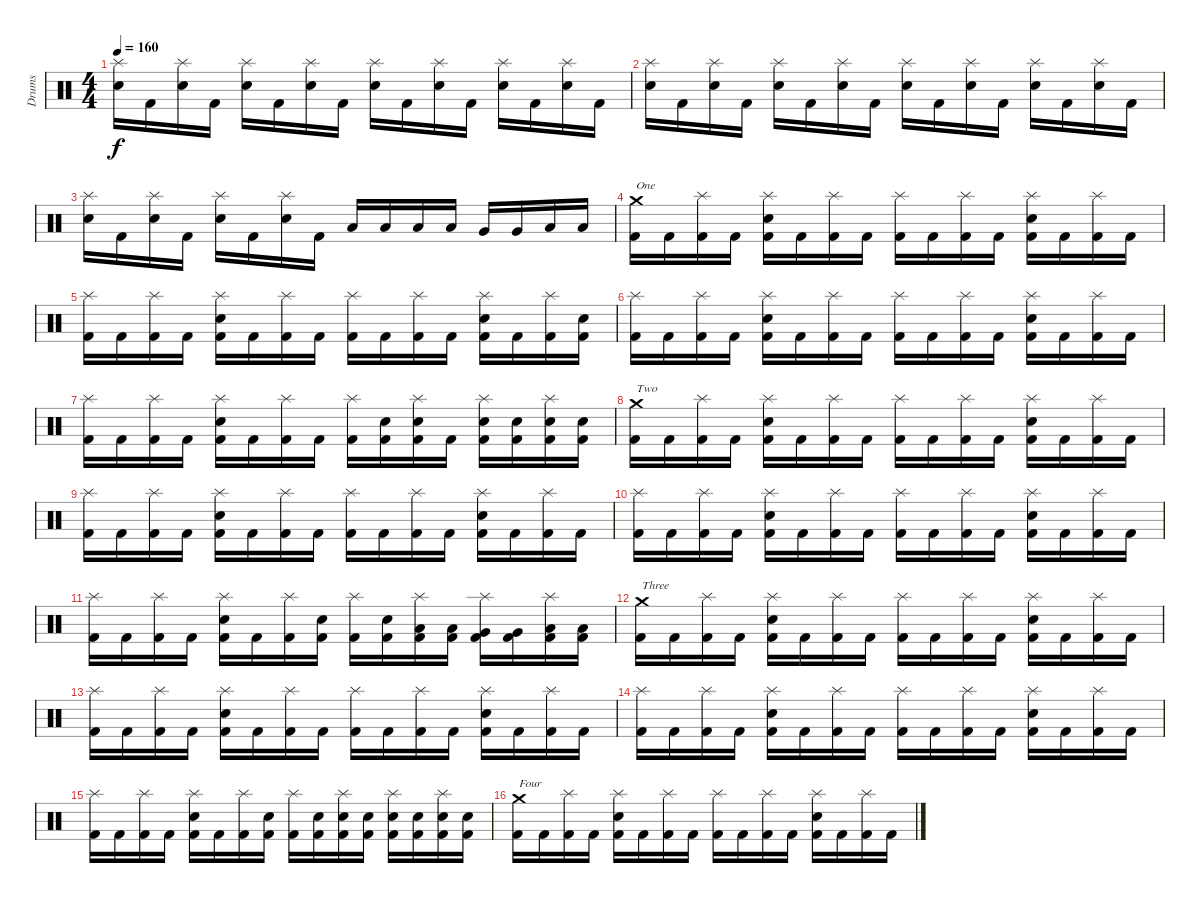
\track ("Drums" "Drums") {instrument percussion}
\staff {score}
\articulation defaults
\ts (4 4)
\tempo 160
\clef neutral
\ks c
("Splash (hit)" "Snare (hit) 2").16{dy f} "Kick (hit) 2".16 ("Splash (hit)" "Snare (hit) 2").16 "Kick (hit) 2".16 ("Splash (hit)" "Snare (hit) 2").16 "Kick (hit) 2".16 ("Splash (hit)" "Snare (hit) 2").16 "Kick (hit) 2".16 ("Splash (hit)" "Snare (hit) 2").16 "Kick (hit) 2".16 ("Splash (hit)" "Snare (hit) 2").16 "Kick (hit) 2".16 ("Splash (hit)" "Snare (hit) 2").16 "Kick (hit) 2".16 ("Splash (hit)" "Snare (hit) 2").16 "Kick (hit) 2".16 |
("Splash (hit)" "Snare (hit) 2").16 "Kick (hit) 2".16 ("Splash (hit)" "Snare (hit) 2").16 "Kick (hit) 2".16 ("Splash (hit)" "Snare (hit) 2").16 "Kick (hit) 2".16 ("Splash (hit)" "Snare (hit) 2").16 "Kick (hit) 2".16 ("Splash (hit)" "Snare (hit) 2").16 "Kick (hit) 2".16 ("Splash (hit)" "Snare (hit) 2").16 "Kick (hit) 2".16 ("Splash (hit)" "Snare (hit) 2").16 "Kick (hit) 2".16 ("Splash (hit)" "Snare (hit) 2").16 "Kick (hit) 2".16 |
("Splash (hit)" "Snare (hit) 2").16 "Kick (hit) 2".16 ("Splash (hit)" "Snare (hit) 2").16 "Kick (hit) 2".16 ("Splash (hit)" "Snare (hit) 2").16 "Kick (hit) 2".16 ("Splash (hit)" "Snare (hit) 2").16 "Kick (hit) 2".16 "Low Tom (hit)".16 "Low Tom (hit)".16 "Low Tom (hit)".16 "Low Tom (hit)".16 "Very Low Tom (hit)".16 "Very Low Tom (hit)".16 "Low Floor Tom (hit)".16 "Low Floor Tom (hit)".16 |
("Crash medium (hit)" "Kick (hit) 2").16{txt "One"} "Kick (hit) 2".16 ("Splash (hit)" "Kick (hit) 2").16 "Kick (hit) 2".16 ("Splash (hit)" "Snare (hit) 2" "Kick (hit) 2").16 "Kick (hit) 2".16 ("Splash (hit)" "Kick (hit) 2").16 "Kick (hit) 2".16 ("Splash (hit)" "Kick (hit) 2").16 "Kick (hit) 2".16 ("Splash (hit)" "Kick (hit) 2").16 "Kick (hit) 2".16 ("Splash (hit)" "Snare (hit) 2" "Kick (hit) 2").16 "Kick (hit) 2".16 ("Splash (hit)" "Kick (hit) 2").16 "Kick (hit) 2".16 |
("Splash (hit)" "Kick (hit) 2").16 "Kick (hit) 2".16 ("Splash (hit)" "Kick (hit) 2").16 "Kick (hit) 2".16 ("Splash (hit)" "Snare (hit) 2" "Kick (hit) 2").16 "Kick (hit) 2".16 ("Splash (hit)" "Kick (hit) 2").16 "Kick (hit) 2".16 ("Splash (hit)" "Kick (hit) 2").16 "Kick (hit) 2".16 ("Splash (hit)" "Kick (hit) 2").16 "Kick (hit) 2".16 ("Splash (hit)" "Snare (hit) 2" "Kick (hit) 2").16 "Kick (hit) 2".16 ("Splash (hit)" "Kick (hit) 2").16 ("Snare (hit) 2" "Kick (hit) 2").16 |
("Splash (hit)" "Kick (hit) 2").16 "Kick (hit) 2".16 ("Splash (hit)" "Kick (hit) 2").16 "Kick (hit) 2".16 ("Splash (hit)" "Snare (hit) 2" "Kick (hit) 2").16 "Kick (hit) 2".16 ("Splash (hit)" "Kick (hit) 2").16 "Kick (hit) 2".16 ("Splash (hit)" "Kick (hit) 2").16 "Kick (hit) 2".16 ("Splash (hit)" "Kick (hit) 2").16 "Kick (hit) 2".16 ("Splash (hit)" "Snare (hit) 2" "Kick (hit) 2").16 "Kick (hit) 2".16 ("Splash (hit)" "Kick (hit) 2").16 "Kick (hit) 2".16 |
("Splash (hit)" "Kick (hit) 2").16 "Kick (hit) 2".16 ("Splash (hit)" "Kick (hit) 2").16 "Kick (hit) 2".16 ("Splash (hit)" "Snare (hit) 2" "Kick (hit) 2").16 "Kick (hit) 2".16 ("Splash (hit)" "Kick (hit) 2").16 "Kick (hit) 2".16 ("Splash (hit)" "Kick (hit) 2").16 ("Snare (hit) 2" "Kick (hit) 2").16 ("Splash (hit)" "Snare (hit) 2" "Kick (hit) 2").16 "Kick (hit) 2".16 ("Splash (hit)" "Snare (hit) 2" "Kick (hit) 2").16 ("Snare (hit) 2" "Kick (hit) 2").16 ("Splash (hit)" "Snare (hit) 2" "Kick (hit) 2").16 ("Snare (hit) 2" "Kick (hit) 2").16 |
("Crash medium (hit)" "Kick (hit) 2").16{txt "Two"} "Kick (hit) 2".16 ("Splash (hit)" "Kick (hit) 2").16 "Kick (hit) 2".16 ("Splash (hit)" "Snare (hit) 2" "Kick (hit) 2").16 "Kick (hit) 2".16 ("Splash (hit)" "Kick (hit) 2").16 "Kick (hit) 2".16 ("Splash (hit)" "Kick (hit) 2").16 "Kick (hit) 2".16 ("Splash (hit)" "Kick (hit) 2").16 "Kick (hit) 2".16 ("Splash (hit)" "Snare (hit) 2" "Kick (hit) 2").16 "Kick (hit) 2".16 ("Splash (hit)" "Kick (hit) 2").16 "Kick (hit) 2".16 |
("Splash (hit)" "Kick (hit) 2").16 "Kick (hit) 2".16 ("Splash (hit)" "Kick (hit) 2").16 "Kick (hit) 2".16 ("Splash (hit)" "Snare (hit) 2" "Kick (hit) 2").16 "Kick (hit) 2".16 ("Splash (hit)" "Kick (hit) 2").16 "Kick (hit) 2".16 ("Splash (hit)" "Kick (hit) 2").16 "Kick (hit) 2".16 ("Splash (hit)" "Kick (hit) 2").16 "Kick (hit) 2".16 ("Splash (hit)" "Snare (hit) 2" "Kick (hit) 2").16 "Kick (hit) 2".16 ("Splash (hit)" "Kick (hit) 2").16 "Kick (hit) 2".16 |
("Splash (hit)" "Kick (hit) 2").16 "Kick (hit) 2".16 ("Splash (hit)" "Kick (hit) 2").16 "Kick (hit) 2".16 ("Splash (hit)" "Snare (hit) 2" "Kick (hit) 2").16 "Kick (hit) 2".16 ("Splash (hit)" "Kick (hit) 2").16 "Kick (hit) 2".16 ("Splash (hit)" "Kick (hit) 2").16 "Kick (hit) 2".16 ("Splash (hit)" "Kick (hit) 2").16 "Kick (hit) 2".16 ("Splash (hit)" "Snare (hit) 2" "Kick (hit) 2").16 "Kick (hit) 2".16 ("Splash (hit)" "Kick (hit) 2").16 "Kick (hit) 2".16 |
("Splash (hit)" "Kick (hit) 2").16 "Kick (hit) 2".16 ("Splash (hit)" "Kick (hit) 2").16 "Kick (hit) 2".16 ("Splash (hit)" "Snare (hit) 2" "Kick (hit) 2").16 "Kick (hit) 2".16 ("Splash (hit)" "Kick (hit) 2").16 ("Snare (hit) 2" "Kick (hit) 2").16 ("Splash (hit)" "Kick (hit) 2").16 ("Snare (hit) 2" "Kick (hit) 2").16 ("Splash (hit)" "Low Tom (hit)" "Kick (hit) 2").16 ("Low Tom (hit)" "Kick (hit) 2").16 ("Splash (hit)" "Very Low Tom (hit)" "Kick (hit) 2").16 ("Very Low Tom (hit)" "Kick (hit) 2").16 ("Splash (hit)" "Low Floor Tom (hit)" "Kick (hit) 2").16 ("Low Floor Tom (hit)" "Kick (hit) 2").16 |
("Crash medium (hit)" "Kick (hit) 2").16{txt "Three"} "Kick (hit) 2".16 ("Splash (hit)" "Kick (hit) 2").16 "Kick (hit) 2".16 ("Splash (hit)" "Snare (hit) 2" "Kick (hit) 2").16 "Kick (hit) 2".16 ("Splash (hit)" "Kick (hit) 2").16 "Kick (hit) 2".16 ("Splash (hit)" "Kick (hit) 2").16 "Kick (hit) 2".16 ("Splash (hit)" "Kick (hit) 2").16 "Kick (hit) 2".16 ("Splash (hit)" "Snare (hit) 2" "Kick (hit) 2").16 "Kick (hit) 2".16 ("Splash (hit)" "Kick (hit) 2").16 "Kick (hit) 2".16 |
("Splash (hit)" "Kick (hit) 2").16 "Kick (hit) 2".16 ("Splash (hit)" "Kick (hit) 2").16 "Kick (hit) 2".16 ("Splash (hit)" "Snare (hit) 2" "Kick (hit) 2").16 "Kick (hit) 2".16 ("Splash (hit)" "Kick (hit) 2").16 "Kick (hit) 2".16 ("Splash (hit)" "Kick (hit) 2").16 "Kick (hit) 2".16 ("Splash (hit)" "Kick (hit) 2").16 "Kick (hit) 2".16 ("Splash (hit)" "Snare (hit) 2" "Kick (hit) 2").16 "Kick (hit) 2".16 ("Splash (hit)" "Kick (hit) 2").16 "Kick (hit) 2".16 |
("Splash (hit)" "Kick (hit) 2").16 "Kick (hit) 2".16 ("Splash (hit)" "Kick (hit) 2").16 "Kick (hit) 2".16 ("Splash (hit)" "Snare (hit) 2" "Kick (hit) 2").16 "Kick (hit) 2".16 ("Splash (hit)" "Kick (hit) 2").16 "Kick (hit) 2".16 ("Splash (hit)" "Kick (hit) 2").16 "Kick (hit) 2".16 ("Splash (hit)" "Kick (hit) 2").16 "Kick (hit) 2".16 ("Splash (hit)" "Snare (hit) 2" "Kick (hit) 2").16 "Kick (hit) 2".16 ("Splash (hit)" "Kick (hit) 2").16 "Kick (hit) 2".16 |
("Splash (hit)" "Kick (hit) 2").16 "Kick (hit) 2".16 ("Splash (hit)" "Kick (hit) 2").16 "Kick (hit) 2".16 ("Splash (hit)" "Snare (hit) 2" "Kick (hit) 2").16 "Kick (hit) 2".16 ("Splash (hit)" "Kick (hit) 2").16 ("Snare (hit) 2" "Kick (hit) 2").16 ("Splash (hit)" "Kick (hit) 2").16 ("Snare (hit) 2" "Kick (hit) 2").16 ("Splash (hit)" "Snare (hit) 2" "Kick (hit) 2").16 ("Snare (hit) 2" "Kick (hit) 2").16 ("Splash (hit)" "Snare (hit) 2" "Kick (hit) 2").16 ("Snare (hit) 2" "Kick (hit) 2").16 ("Splash (hit)" "Snare (hit) 2" "Kick (hit) 2").16 ("Snare (hit) 2" "Kick (hit) 2").16 |
("Crash medium (hit)" "Kick (hit) 2").16{txt "Four"} "Kick (hit) 2".16 ("Splash (hit)" "Kick (hit) 2").16 "Kick (hit) 2".16 ("Splash (hit)" "Snare (hit) 2" "Kick (hit) 2").16 "Kick (hit) 2".16 ("Splash (hit)" "Kick (hit) 2").16 "Kick (hit) 2".16 ("Splash (hit)" "Kick (hit) 2").16 "Kick (hit) 2".16 ("Splash (hit)" "Kick (hit) 2").16 "Kick (hit) 2".16 ("Splash (hit)" "Snare (hit) 2" "Kick (hit) 2").16 "Kick (hit) 2".16 ("Splash (hit)" "Kick (hit) 2").16 "Kick (hit) 2".16
